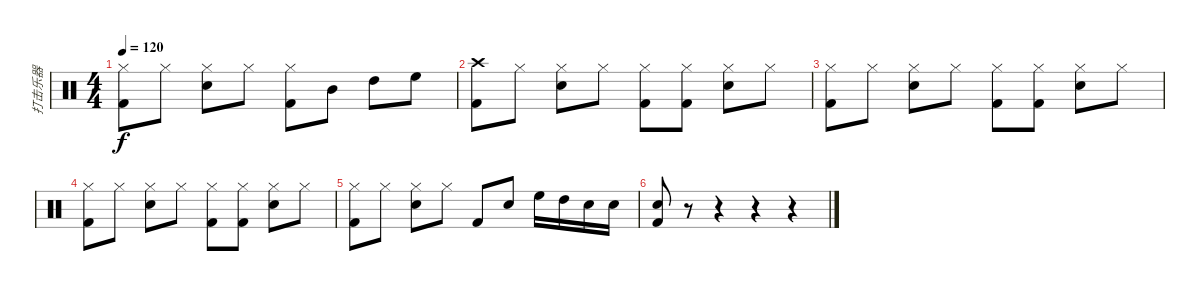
\track ("打击乐器" "打击乐器") {instrument percussion}
\staff {score}
\articulation defaults
\ts (4 4)
\tempo 120
\clef neutral
\ks c
("Hi-Hat (closed)" "Kick (hit) 2").8{dy f} "Hi-Hat (closed)".8 ("Hi-Hat (closed)" "Electric Snare (hit)").8 "Hi-Hat (closed)".8 ("Hi-Hat (closed)" "Kick (hit) 2").8 "Mid Tom (hit)".8 "High Tom (hit)".8 "High Floor Tom (hit)".8 |
("Crash high (hit)" "Kick (hit) 2").8 "Hi-Hat (closed)".8 ("Hi-Hat (closed)" "Electric Snare (hit)").8 "Hi-Hat (closed)".8 ("Hi-Hat (closed)" "Kick (hit) 2").8 ("Hi-Hat (closed)" "Kick (hit) 2").8 ("Hi-Hat (closed)" "Electric Snare (hit)").8 "Hi-Hat (closed)".8 |
("Hi-Hat (closed)" "Kick (hit) 2").8 "Hi-Hat (closed)".8 ("Hi-Hat (closed)" "Electric Snare (hit)").8 "Hi-Hat (closed)".8 ("Hi-Hat (closed)" "Kick (hit) 2").8 ("Hi-Hat (closed)" "Kick (hit) 2").8 ("Hi-Hat (closed)" "Electric Snare (hit)").8 "Hi-Hat (closed)".8 |
("Hi-Hat (closed)" "Kick (hit) 2").8 "Hi-Hat (closed)".8 ("Hi-Hat (closed)" "Electric Snare (hit)").8 "Hi-Hat (closed)".8 ("Hi-Hat (closed)" "Kick (hit) 2").8 ("Hi-Hat (closed)" "Kick (hit) 2").8 ("Hi-Hat (closed)" "Electric Snare (hit)").8 "Hi-Hat (closed)".8 |
("Hi-Hat (closed)" "Kick (hit) 2").8 "Hi-Hat (closed)".8 ("Hi-Hat (closed)" "Electric Snare (hit)").8 "Hi-Hat (closed)".8 "Kick (hit) 2".8 "Electric Snare (hit)".8 "High Floor Tom (hit)".16 "High Tom (hit)".16 "Electric Snare (hit)".16 "Electric Snare (hit)".16 |
("Electric Snare (hit)" "Kick (hit) 2").8 r.8 r.4 r.4 r.4
